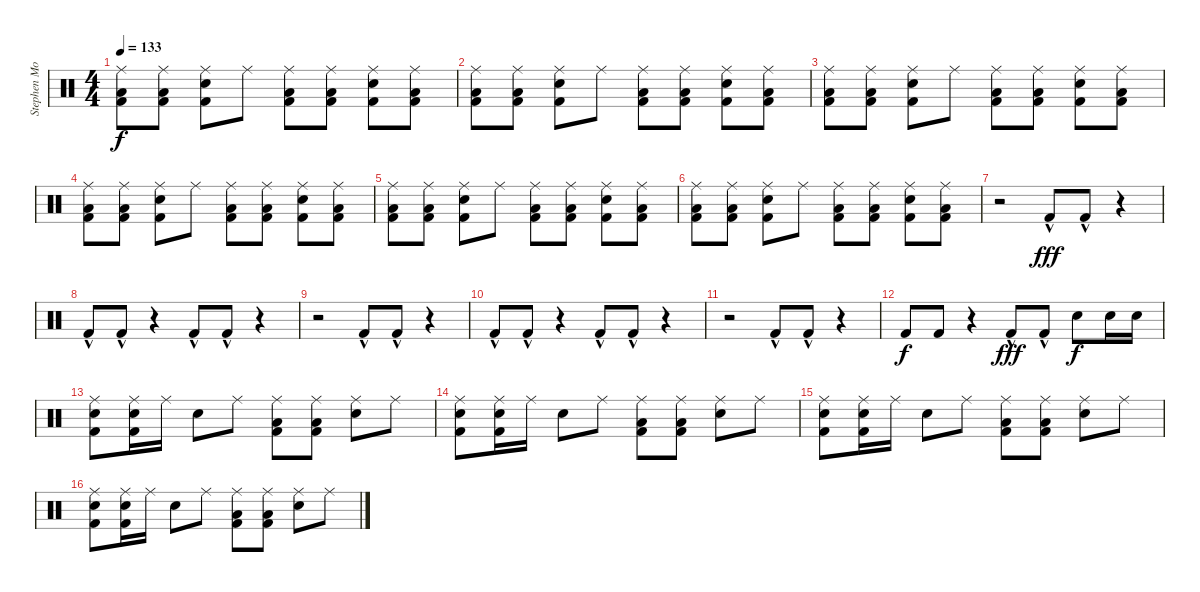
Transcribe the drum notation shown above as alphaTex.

\track ("Stephen Morris - Drums" "Stephen Mo") {instrument percussion}
\staff {score}
\articulation defaults
\ts (4 4)
\tempo 133
\clef neutral
\ks c
("Ride (middle)" "Low Tom (hit)" "Kick (hit) 2").8{dy f} ("Ride (middle)" "Low Tom (hit)" "Kick (hit) 2").8 ("Ride (middle)" "Electric Snare (hit)" "Kick (hit) 2").8 "Ride (middle)".8 ("Ride (middle)" "Low Tom (hit)" "Kick (hit) 2").8 ("Ride (middle)" "Low Tom (hit)" "Kick (hit) 2").8 ("Ride (middle)" "Electric Snare (hit)" "Kick (hit) 2").8 ("Ride (middle)" "Low Tom (hit)" "Kick (hit) 2").8 |
("Ride (middle)" "Low Tom (hit)" "Kick (hit) 2").8 ("Ride (middle)" "Low Tom (hit)" "Kick (hit) 2").8 ("Ride (middle)" "Electric Snare (hit)" "Kick (hit) 2").8 "Ride (middle)".8 ("Ride (middle)" "Low Tom (hit)" "Kick (hit) 2").8 ("Ride (middle)" "Low Tom (hit)" "Kick (hit) 2").8 ("Ride (middle)" "Electric Snare (hit)" "Kick (hit) 2").8 ("Ride (middle)" "Low Tom (hit)" "Kick (hit) 2").8 |
("Ride (middle)" "Low Tom (hit)" "Kick (hit) 2").8 ("Ride (middle)" "Low Tom (hit)" "Kick (hit) 2").8 ("Ride (middle)" "Electric Snare (hit)" "Kick (hit) 2").8 "Ride (middle)".8 ("Ride (middle)" "Low Tom (hit)" "Kick (hit) 2").8 ("Ride (middle)" "Low Tom (hit)" "Kick (hit) 2").8 ("Ride (middle)" "Electric Snare (hit)" "Kick (hit) 2").8 ("Ride (middle)" "Low Tom (hit)" "Kick (hit) 2").8 |
("Ride (middle)" "Low Tom (hit)" "Kick (hit) 2").8 ("Ride (middle)" "Low Tom (hit)" "Kick (hit) 2").8 ("Ride (middle)" "Electric Snare (hit)" "Kick (hit) 2").8 "Ride (middle)".8 ("Ride (middle)" "Low Tom (hit)" "Kick (hit) 2").8 ("Ride (middle)" "Low Tom (hit)" "Kick (hit) 2").8 ("Ride (middle)" "Electric Snare (hit)" "Kick (hit) 2").8 ("Ride (middle)" "Low Tom (hit)" "Kick (hit) 2").8 |
("Ride (middle)" "Low Tom (hit)" "Kick (hit) 2").8 ("Ride (middle)" "Low Tom (hit)" "Kick (hit) 2").8 ("Ride (middle)" "Electric Snare (hit)" "Kick (hit) 2").8 "Ride (middle)".8 ("Ride (middle)" "Low Tom (hit)" "Kick (hit) 2").8 ("Ride (middle)" "Low Tom (hit)" "Kick (hit) 2").8 ("Ride (middle)" "Electric Snare (hit)" "Kick (hit) 2").8 ("Ride (middle)" "Low Tom (hit)" "Kick (hit) 2").8 |
("Ride (middle)" "Low Tom (hit)" "Kick (hit) 2").8 ("Ride (middle)" "Low Tom (hit)" "Kick (hit) 2").8 ("Ride (middle)" "Electric Snare (hit)" "Kick (hit) 2").8 "Ride (middle)".8 ("Ride (middle)" "Low Tom (hit)" "Kick (hit) 2").8 ("Ride (middle)" "Low Tom (hit)" "Kick (hit) 2").8 ("Ride (middle)" "Electric Snare (hit)" "Kick (hit) 2").8 ("Ride (middle)" "Low Tom (hit)" "Kick (hit) 2").8 |
r.2 "Kick (hit) 2"{hac}.8{dy fff} "Kick (hit) 2"{hac}.8 r.4 |
"Kick (hit) 2"{hac}.8 "Kick (hit) 2"{hac}.8 r.4 "Kick (hit) 2"{hac}.8 "Kick (hit) 2"{hac}.8 r.4 |
r.2 "Kick (hit) 2"{hac}.8 "Kick (hit) 2"{hac}.8 r.4 |
"Kick (hit) 2"{hac}.8 "Kick (hit) 2"{hac}.8 r.4 "Kick (hit) 2"{hac}.8 "Kick (hit) 2"{hac}.8 r.4 |
r.2 "Kick (hit) 2"{hac}.8 "Kick (hit) 2"{hac}.8 r.4 |
"Kick (hit) 2".8{dy f} "Kick (hit) 2".8 r.4 "Kick (hit) 2"{hac}.8{dy fff} "Kick (hit) 2"{hac}.8 "Electric Snare (hit)".8{dy f} "Electric Snare (hit)".16 "Electric Snare (hit)".16 |
("Ride (middle)" "Electric Snare (hit)" "Kick (hit) 2").8 ("Ride (middle)" "Electric Snare (hit)" "Kick (hit) 2").16 "Ride (middle)".16 "Electric Snare (hit)".8 "Ride (middle)".8 ("Ride (middle)" "Low Tom (hit)" "Kick (hit) 2").8 ("Ride (middle)" "Low Tom (hit)" "Kick (hit) 2").8 ("Ride (middle)" "Electric Snare (hit)").8 "Ride (middle)".8 |
("Ride (middle)" "Electric Snare (hit)" "Kick (hit) 2").8 ("Ride (middle)" "Electric Snare (hit)" "Kick (hit) 2").16 "Ride (middle)".16 "Electric Snare (hit)".8 "Ride (middle)".8 ("Ride (middle)" "Low Tom (hit)" "Kick (hit) 2").8 ("Ride (middle)" "Low Tom (hit)" "Kick (hit) 2").8 ("Ride (middle)" "Electric Snare (hit)").8 "Ride (middle)".8 |
("Ride (middle)" "Electric Snare (hit)" "Kick (hit) 2").8 ("Ride (middle)" "Electric Snare (hit)" "Kick (hit) 2").16 "Ride (middle)".16 "Electric Snare (hit)".8 "Ride (middle)".8 ("Ride (middle)" "Low Tom (hit)" "Kick (hit) 2").8 ("Ride (middle)" "Low Tom (hit)" "Kick (hit) 2").8 ("Ride (middle)" "Electric Snare (hit)").8 "Ride (middle)".8 |
("Ride (middle)" "Electric Snare (hit)" "Kick (hit) 2").8 ("Ride (middle)" "Electric Snare (hit)" "Kick (hit) 2").16 "Ride (middle)".16 "Electric Snare (hit)".8 "Ride (middle)".8 ("Ride (middle)" "Low Tom (hit)" "Kick (hit) 2").8 ("Ride (middle)" "Low Tom (hit)" "Kick (hit) 2").8 ("Ride (middle)" "Electric Snare (hit)").8 "Ride (middle)".8
